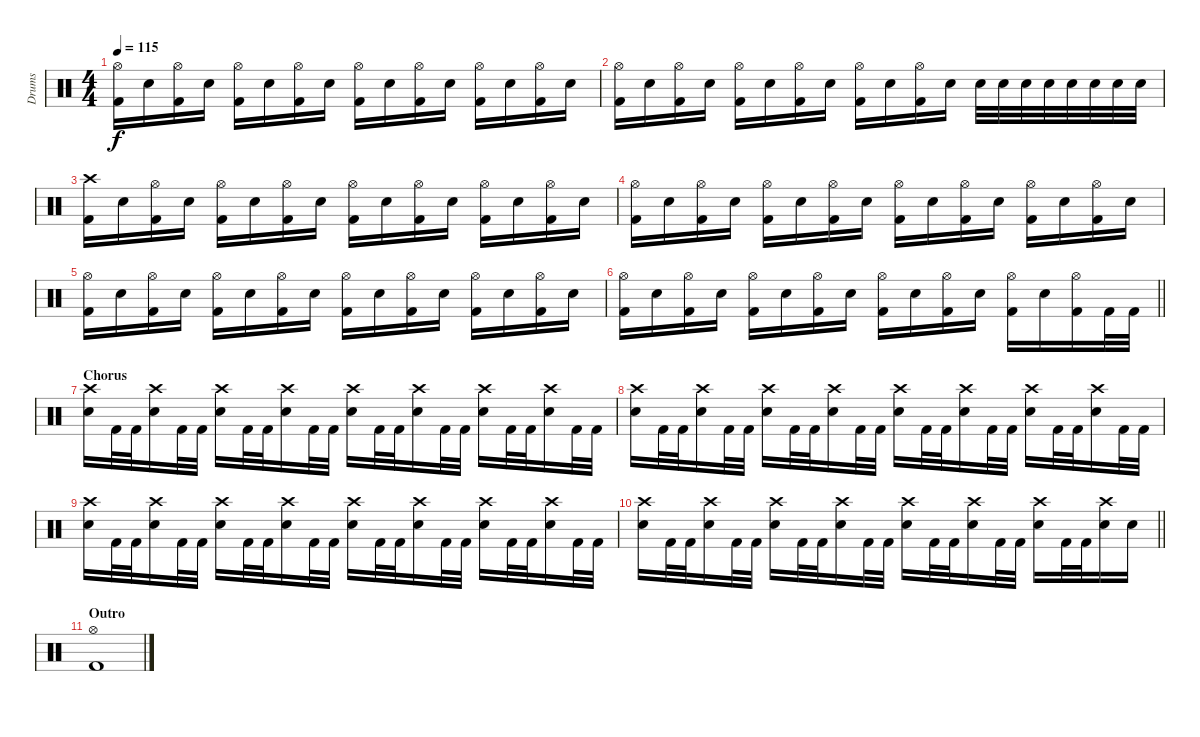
\track ("Drums" "Drums") {instrument percussion}
\staff {score}
\articulation defaults
\ts (4 4)
\tempo 115
\clef neutral
\ks c
("Hi-Hat (open)" "Kick (hit) 2").16{dy f} "Electric Snare (hit)".16 ("Hi-Hat (open)" "Kick (hit) 2").16 "Electric Snare (hit)".16 ("Hi-Hat (open)" "Kick (hit) 2").16 "Electric Snare (hit)".16 ("Hi-Hat (open)" "Kick (hit) 2").16 "Electric Snare (hit)".16 ("Hi-Hat (open)" "Kick (hit) 2").16 "Electric Snare (hit)".16 ("Hi-Hat (open)" "Kick (hit) 2").16 "Electric Snare (hit)".16 ("Hi-Hat (open)" "Kick (hit) 2").16 "Electric Snare (hit)".16 ("Hi-Hat (open)" "Kick (hit) 2").16 "Electric Snare (hit)".16 |
("Hi-Hat (open)" "Kick (hit) 2").16 "Electric Snare (hit)".16 ("Hi-Hat (open)" "Kick (hit) 2").16 "Electric Snare (hit)".16 ("Hi-Hat (open)" "Kick (hit) 2").16 "Electric Snare (hit)".16 ("Hi-Hat (open)" "Kick (hit) 2").16 "Electric Snare (hit)".16 ("Hi-Hat (open)" "Kick (hit) 2").16 "Electric Snare (hit)".16 ("Hi-Hat (open)" "Kick (hit) 2").16 "Electric Snare (hit)".16 "Electric Snare (hit)".32 "Electric Snare (hit)".32 "Electric Snare (hit)".32 "Electric Snare (hit)".32 "Electric Snare (hit)".32 "Electric Snare (hit)".32 "Electric Snare (hit)".32 "Electric Snare (hit)".32 |
("Crash high (hit)" "Kick (hit) 2").16 "Electric Snare (hit)".16 ("Hi-Hat (open)" "Kick (hit) 2").16 "Electric Snare (hit)".16 ("Hi-Hat (open)" "Kick (hit) 2").16 "Electric Snare (hit)".16 ("Hi-Hat (open)" "Kick (hit) 2").16 "Electric Snare (hit)".16 ("Hi-Hat (open)" "Kick (hit) 2").16 "Electric Snare (hit)".16 ("Hi-Hat (open)" "Kick (hit) 2").16 "Electric Snare (hit)".16 ("Hi-Hat (open)" "Kick (hit) 2").16 "Electric Snare (hit)".16 ("Hi-Hat (open)" "Kick (hit) 2").16 "Electric Snare (hit)".16 |
("Hi-Hat (open)" "Kick (hit) 2").16 "Electric Snare (hit)".16 ("Hi-Hat (open)" "Kick (hit) 2").16 "Electric Snare (hit)".16 ("Hi-Hat (open)" "Kick (hit) 2").16 "Electric Snare (hit)".16 ("Hi-Hat (open)" "Kick (hit) 2").16 "Electric Snare (hit)".16 ("Hi-Hat (open)" "Kick (hit) 2").16 "Electric Snare (hit)".16 ("Hi-Hat (open)" "Kick (hit) 2").16 "Electric Snare (hit)".16 ("Hi-Hat (open)" "Kick (hit) 2").16 "Electric Snare (hit)".16 ("Hi-Hat (open)" "Kick (hit) 2").16 "Electric Snare (hit)".16 |
("Hi-Hat (open)" "Kick (hit) 2").16 "Electric Snare (hit)".16 ("Hi-Hat (open)" "Kick (hit) 2").16 "Electric Snare (hit)".16 ("Hi-Hat (open)" "Kick (hit) 2").16 "Electric Snare (hit)".16 ("Hi-Hat (open)" "Kick (hit) 2").16 "Electric Snare (hit)".16 ("Hi-Hat (open)" "Kick (hit) 2").16 "Electric Snare (hit)".16 ("Hi-Hat (open)" "Kick (hit) 2").16 "Electric Snare (hit)".16 ("Hi-Hat (open)" "Kick (hit) 2").16 "Electric Snare (hit)".16 ("Hi-Hat (open)" "Kick (hit) 2").16 "Electric Snare (hit)".16 |
\barLineRight lightlight
("Hi-Hat (open)" "Kick (hit) 2").16 "Electric Snare (hit)".16 ("Hi-Hat (open)" "Kick (hit) 2").16 "Electric Snare (hit)".16 ("Hi-Hat (open)" "Kick (hit) 2").16 "Electric Snare (hit)".16 ("Hi-Hat (open)" "Kick (hit) 2").16 "Electric Snare (hit)".16 ("Hi-Hat (open)" "Kick (hit) 2").16 "Electric Snare (hit)".16 ("Hi-Hat (open)" "Kick (hit) 2").16 "Electric Snare (hit)".16 ("Hi-Hat (open)" "Kick (hit) 2").16 "Electric Snare (hit)".16 ("Hi-Hat (open)" "Kick (hit) 2").16 "Kick (hit) 2".32 "Kick (hit) 2".32 |
\section ("" "Chorus")
("Crash high (hit)" "Electric Snare (hit)").16 "Kick (hit) 2".32 "Kick (hit) 2".32 ("Crash high (hit)" "Electric Snare (hit)").16 "Kick (hit) 2".32 "Kick (hit) 2".32 ("Crash high (hit)" "Electric Snare (hit)").16 "Kick (hit) 2".32 "Kick (hit) 2".32 ("Crash high (hit)" "Electric Snare (hit)").16 "Kick (hit) 2".32 "Kick (hit) 2".32 ("Crash high (hit)" "Electric Snare (hit)").16 "Kick (hit) 2".32 "Kick (hit) 2".32 ("Crash high (hit)" "Electric Snare (hit)").16 "Kick (hit) 2".32 "Kick (hit) 2".32 ("Crash high (hit)" "Electric Snare (hit)").16 "Kick (hit) 2".32 "Kick (hit) 2".32 ("Crash high (hit)" "Electric Snare (hit)").16 "Kick (hit) 2".32 "Kick (hit) 2".32 |
("Crash high (hit)" "Electric Snare (hit)").16 "Kick (hit) 2".32 "Kick (hit) 2".32 ("Crash high (hit)" "Electric Snare (hit)").16 "Kick (hit) 2".32 "Kick (hit) 2".32 ("Crash high (hit)" "Electric Snare (hit)").16 "Kick (hit) 2".32 "Kick (hit) 2".32 ("Crash high (hit)" "Electric Snare (hit)").16 "Kick (hit) 2".32 "Kick (hit) 2".32 ("Crash high (hit)" "Electric Snare (hit)").16 "Kick (hit) 2".32 "Kick (hit) 2".32 ("Crash high (hit)" "Electric Snare (hit)").16 "Kick (hit) 2".32 "Kick (hit) 2".32 ("Crash high (hit)" "Electric Snare (hit)").16 "Kick (hit) 2".32 "Kick (hit) 2".32 ("Crash high (hit)" "Electric Snare (hit)").16 "Kick (hit) 2".32 "Kick (hit) 2".32 |
("Crash high (hit)" "Electric Snare (hit)").16 "Kick (hit) 2".32 "Kick (hit) 2".32 ("Crash high (hit)" "Electric Snare (hit)").16 "Kick (hit) 2".32 "Kick (hit) 2".32 ("Crash high (hit)" "Electric Snare (hit)").16 "Kick (hit) 2".32 "Kick (hit) 2".32 ("Crash high (hit)" "Electric Snare (hit)").16 "Kick (hit) 2".32 "Kick (hit) 2".32 ("Crash high (hit)" "Electric Snare (hit)").16 "Kick (hit) 2".32 "Kick (hit) 2".32 ("Crash high (hit)" "Electric Snare (hit)").16 "Kick (hit) 2".32 "Kick (hit) 2".32 ("Crash high (hit)" "Electric Snare (hit)").16 "Kick (hit) 2".32 "Kick (hit) 2".32 ("Crash high (hit)" "Electric Snare (hit)").16 "Kick (hit) 2".32 "Kick (hit) 2".32 |
\barLineRight lightlight
("Crash high (hit)" "Electric Snare (hit)").16 "Kick (hit) 2".32 "Kick (hit) 2".32 ("Crash high (hit)" "Electric Snare (hit)").16 "Kick (hit) 2".32 "Kick (hit) 2".32 ("Crash high (hit)" "Electric Snare (hit)").16 "Kick (hit) 2".32 "Kick (hit) 2".32 ("Crash high (hit)" "Electric Snare (hit)").16 "Kick (hit) 2".32 "Kick (hit) 2".32 ("Crash high (hit)" "Electric Snare (hit)").16 "Kick (hit) 2".32 "Kick (hit) 2".32 ("Crash high (hit)" "Electric Snare (hit)").16 "Kick (hit) 2".32 "Kick (hit) 2".32 ("Crash high (hit)" "Electric Snare (hit)").16 "Kick (hit) 2".32 "Kick (hit) 2".32 ("Crash high (hit)" "Electric Snare (hit)").16 "Electric Snare (hit)".16 |
\section ("" "Outro")
("Hi-Hat (open)" "Kick (hit) 2").1
